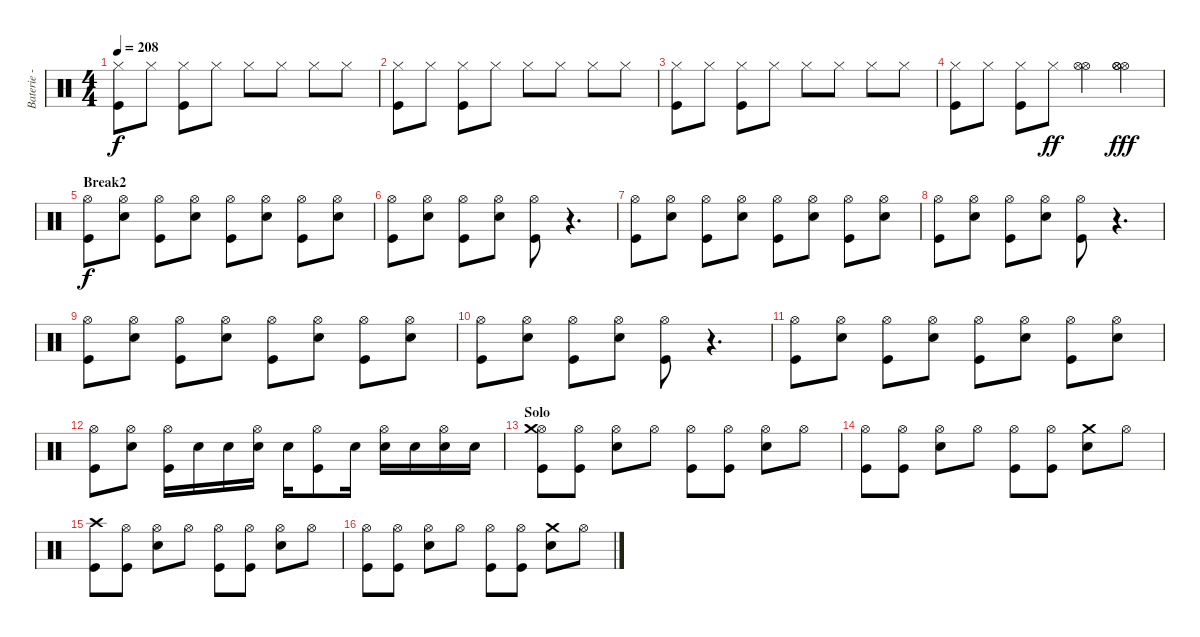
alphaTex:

\track ("Baterie - Guillaume" "Baterie - ") {instrument percussion}
\staff {score}
\articulation defaults
\ts (4 4)
\tempo 208
\clef neutral
\ks c
("Hi-Hat (closed)" "Kick (hit)").8{dy f} "Hi-Hat (closed)".8 ("Hi-Hat (closed)" "Kick (hit)").8 "Hi-Hat (closed)".8 "Hi-Hat (closed)".8 "Hi-Hat (closed)".8 "Hi-Hat (closed)".8 "Hi-Hat (closed)".8 |
("Hi-Hat (closed)" "Kick (hit)").8 "Hi-Hat (closed)".8 ("Hi-Hat (closed)" "Kick (hit)").8 "Hi-Hat (closed)".8 "Hi-Hat (closed)".8 "Hi-Hat (closed)".8 "Hi-Hat (closed)".8 "Hi-Hat (closed)".8 |
("Hi-Hat (closed)" "Kick (hit)").8 "Hi-Hat (closed)".8 ("Hi-Hat (closed)" "Kick (hit)").8 "Hi-Hat (closed)".8 "Hi-Hat (closed)".8 "Hi-Hat (closed)".8 "Hi-Hat (closed)".8 "Hi-Hat (closed)".8 |
("Hi-Hat (closed)" "Kick (hit)").8 "Hi-Hat (closed)".8 ("Hi-Hat (closed)" "Kick (hit)").8 "Hi-Hat (closed)".8{dy ff} ("Hi-Hat (open)" "Hi-Hat (open)").4 ("Hi-Hat (open)" "Hi-Hat (open)" "Hi-Hat (open)").4{dy fff} |
\section ("" "Break2")
("Hi-Hat (open)" "Kick (hit)").8{dy f} ("Hi-Hat (open)" "Electric Snare (hit)").8 ("Hi-Hat (open)" "Kick (hit)").8 ("Hi-Hat (open)" "Electric Snare (hit)").8 ("Hi-Hat (open)" "Kick (hit)").8 ("Hi-Hat (open)" "Electric Snare (hit)").8 ("Hi-Hat (open)" "Kick (hit)").8 ("Hi-Hat (open)" "Electric Snare (hit)").8 |
("Hi-Hat (open)" "Kick (hit)").8 ("Hi-Hat (open)" "Electric Snare (hit)").8 ("Hi-Hat (open)" "Kick (hit)").8 ("Hi-Hat (open)" "Electric Snare (hit)").8 ("Hi-Hat (open)" "Kick (hit)").8 r.4{d} |
("Hi-Hat (open)" "Kick (hit)").8 ("Hi-Hat (open)" "Electric Snare (hit)").8 ("Hi-Hat (open)" "Kick (hit)").8 ("Hi-Hat (open)" "Electric Snare (hit)").8 ("Hi-Hat (open)" "Kick (hit)").8 ("Hi-Hat (open)" "Electric Snare (hit)").8 ("Hi-Hat (open)" "Kick (hit)").8 ("Hi-Hat (open)" "Electric Snare (hit)").8 |
("Hi-Hat (open)" "Kick (hit)").8 ("Hi-Hat (open)" "Electric Snare (hit)").8 ("Hi-Hat (open)" "Kick (hit)").8 ("Hi-Hat (open)" "Electric Snare (hit)").8 ("Hi-Hat (open)" "Kick (hit)").8 r.4{d} |
("Hi-Hat (open)" "Kick (hit)").8 ("Hi-Hat (open)" "Electric Snare (hit)").8 ("Hi-Hat (open)" "Kick (hit)").8 ("Hi-Hat (open)" "Electric Snare (hit)").8 ("Hi-Hat (open)" "Kick (hit)").8 ("Hi-Hat (open)" "Electric Snare (hit)").8 ("Hi-Hat (open)" "Kick (hit)").8 ("Hi-Hat (open)" "Electric Snare (hit)").8 |
("Hi-Hat (open)" "Kick (hit)").8 ("Hi-Hat (open)" "Electric Snare (hit)").8 ("Hi-Hat (open)" "Kick (hit)").8 ("Hi-Hat (open)" "Electric Snare (hit)").8 ("Hi-Hat (open)" "Kick (hit)").8 r.4{d} |
("Hi-Hat (open)" "Kick (hit)").8 ("Hi-Hat (open)" "Electric Snare (hit)").8 ("Hi-Hat (open)" "Kick (hit)").8 ("Hi-Hat (open)" "Electric Snare (hit)").8 ("Hi-Hat (open)" "Kick (hit)").8 ("Hi-Hat (open)" "Electric Snare (hit)").8 ("Hi-Hat (open)" "Kick (hit)").8 ("Hi-Hat (open)" "Electric Snare (hit)").8 |
("Hi-Hat (open)" "Kick (hit)").8 ("Hi-Hat (open)" "Electric Snare (hit)").8 ("Hi-Hat (open)" "Kick (hit)").16 "Electric Snare (hit)".16 "Electric Snare (hit)".16 ("Hi-Hat (open)" "Electric Snare (hit)").16 "Electric Snare (hit)".16 ("Hi-Hat (open)" "Kick (hit)").8 "Electric Snare (hit)".16 ("Hi-Hat (open)" "Electric Snare (hit)").16 "Electric Snare (hit)".16 ("Hi-Hat (open)" "Electric Snare (hit)").16 "Electric Snare (hit)".16 |
\section ("" "Solo")
("Hi-Hat (open)" "Crash medium (hit)" "Kick (hit)").8 ("Hi-Hat (open)" "Kick (hit)").8 ("Hi-Hat (open)" "Electric Snare (hit)").8 "Hi-Hat (open)".8 ("Hi-Hat (open)" "Kick (hit)").8 ("Hi-Hat (open)" "Kick (hit)").8 ("Hi-Hat (open)" "Electric Snare (hit)").8 "Hi-Hat (open)".8 |
("Hi-Hat (open)" "Kick (hit)").8 ("Hi-Hat (open)" "Kick (hit)").8 ("Hi-Hat (open)" "Electric Snare (hit)").8 "Hi-Hat (open)".8 ("Hi-Hat (open)" "Kick (hit)").8 ("Hi-Hat (open)" "Kick (hit)").8 ("Crash medium (hit)" "Electric Snare (hit)").8 "Hi-Hat (open)".8 |
("Crash high (hit)" "Kick (hit)").8 ("Hi-Hat (open)" "Kick (hit)").8 ("Hi-Hat (open)" "Electric Snare (hit)").8 "Hi-Hat (open)".8 ("Hi-Hat (open)" "Kick (hit)").8 ("Hi-Hat (open)" "Kick (hit)").8 ("Hi-Hat (open)" "Electric Snare (hit)").8 "Hi-Hat (open)".8 |
("Hi-Hat (open)" "Kick (hit)").8 ("Hi-Hat (open)" "Kick (hit)").8 ("Hi-Hat (open)" "Electric Snare (hit)").8 "Hi-Hat (open)".8 ("Hi-Hat (open)" "Kick (hit)").8 ("Hi-Hat (open)" "Kick (hit)").8 ("Crash medium (hit)" "Electric Snare (hit)").8 "Hi-Hat (open)".8
